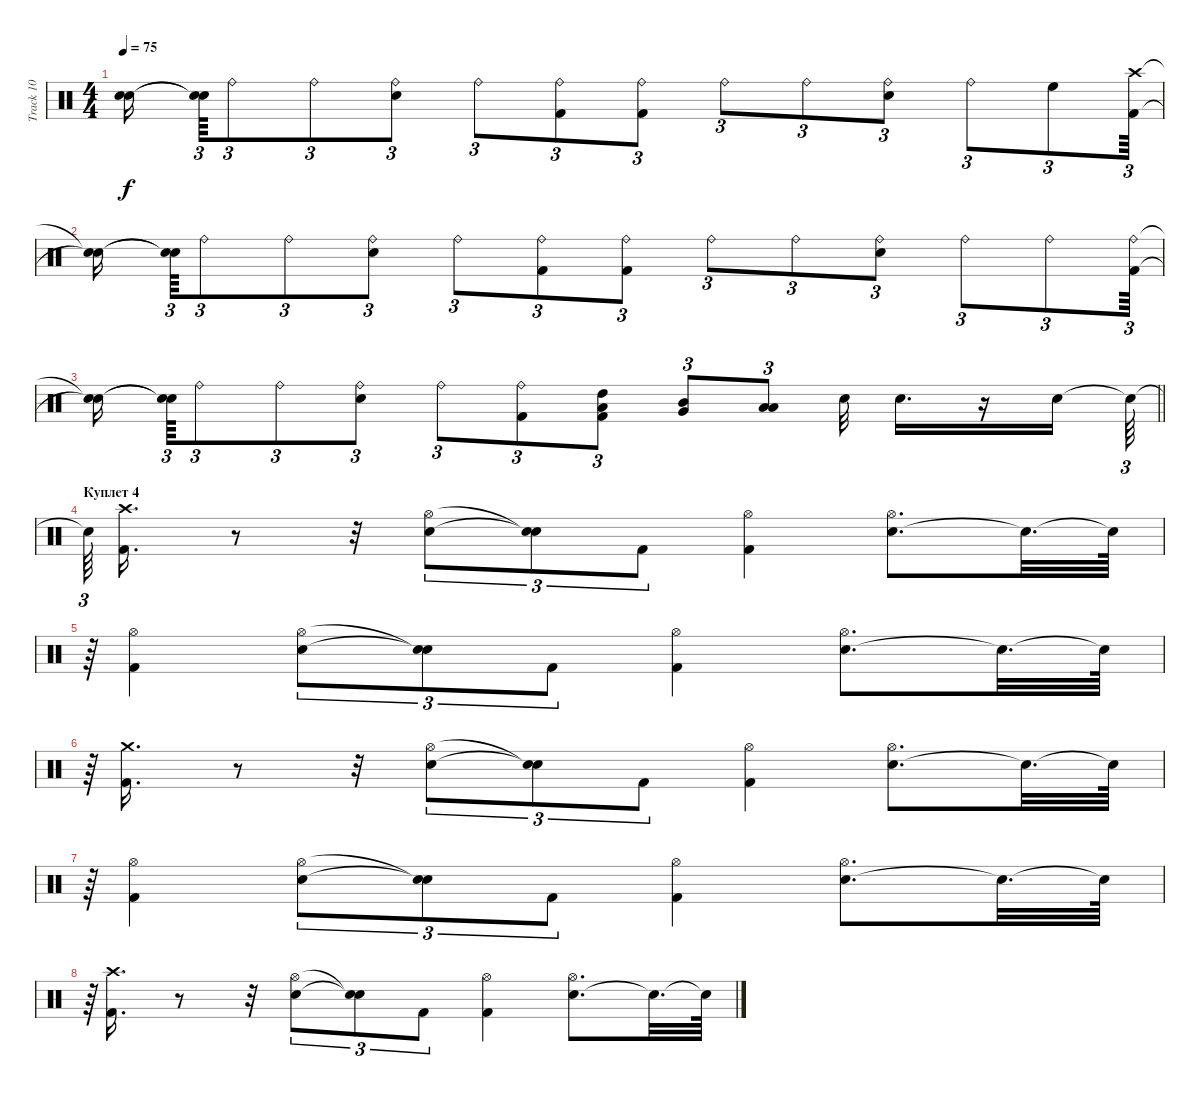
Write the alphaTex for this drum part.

\track ("Track 10" "Track 10") {instrument percussion}
\staff {score}
\articulation defaults
\ts (4 4)
\tempo 75
\clef neutral
\ks c
("Snare (hit)"{t} "Snare (hit)"{t}).16{dy f beam splitsecondary} ("Snare (hit)"{t} "Snare (hit)"{t}).64{tu (3 2)} "Ride (bell)".8{tu (3 2)} "Ride (bell)".8{tu (3 2)} ("Ride (bell)" "Snare (hit) 2").8{tu (3 2)} "Ride (bell)".8{tu (3 2)} ("Ride (bell)" "Kick (hit) 2").8{tu (3 2)} ("Ride (bell)" "Kick (hit) 2").8{tu (3 2)} "Ride (bell)".8{tu (3 2)} "Ride (bell)".8{tu (3 2)} ("Ride (bell)" "Snare (hit) 2").8{tu (3 2)} "Ride (bell)".8{tu (3 2)} "High Floor Tom (hit)".8{tu (3 2)} ("Crash high (hit)" "Kick (hit) 2").64{tu (3 2)} |
("Snare (hit)"{t} "Snare (hit)"{t}).16{beam splitsecondary} ("Snare (hit)"{t} "Snare (hit)"{t}).64{tu (3 2)} "Ride (bell)".8{tu (3 2)} "Ride (bell)".8{tu (3 2)} ("Ride (bell)" "Snare (hit) 2").8{tu (3 2)} "Ride (bell)".8{tu (3 2)} ("Ride (bell)" "Kick (hit) 2").8{tu (3 2)} ("Ride (bell)" "Kick (hit) 2").8{tu (3 2)} "Ride (bell)".8{tu (3 2)} "Ride (bell)".8{tu (3 2)} ("Ride (bell)" "Snare (hit) 2").8{tu (3 2)} "Ride (bell)".8{tu (3 2)} "Ride (bell)".8{tu (3 2)} ("Ride (bell)" "Kick (hit) 2").64{tu (3 2)} |
\barLineRight lightlight
("Snare (hit)"{t} "Snare (hit)"{t}).16{beam splitsecondary} ("Snare (hit)"{t} "Snare (hit)"{t}).64{tu (3 2)} "Ride (bell)".8{tu (3 2)} "Ride (bell)".8{tu (3 2)} ("Ride (bell)" "Snare (hit) 2").8{tu (3 2)} "Ride (bell)".8{tu (3 2)} ("Ride (bell)" "Kick (hit) 2").8{tu (3 2)} ("Kick (hit) 2" "High Tom (hit)" "Low Tom (hit)").8{tu (3 2)} ("Mid Tom (hit)" "Very Low Tom (hit)").8{tu (3 2)} ("Low Tom (hit)" "Low Floor Tom (hit)").8{tu (3 2)} "Snare (hit) 2".32 "Snare (hit) 2".16{d} r.16 "Snare (hit) 2".16 "Snare (hit)"{t}.64{tu (3 2)} |
\section ("" "Куплет 4")
"Snare (hit)"{t}.64{tu (3 2)} ("Kick (hit) 2" "Crash high (hit)").16{d} r.8 r.32 ("Snare (hit) 2" "Hi-Hat (open)").8{tu (3 2)} ("Snare (hit)"{t} "Snare (hit)"{t}).8{tu (3 2)} "Kick (hit) 2".8{tu (3 2)} ("Kick (hit) 2" "Hi-Hat (open)").4 ("Snare (hit) 2" "Hi-Hat (open)").8{d} "Snare (hit)"{t}.32{d} "Snare (hit)"{t}.64 |
r.64{tu (3 2)} ("Kick (hit) 2" "Hi-Hat (open)").4 ("Snare (hit) 2" "Hi-Hat (open)").8{tu (3 2)} ("Snare (hit)"{t} "Snare (hit)"{t}).8{tu (3 2)} "Kick (hit) 2".8{tu (3 2)} ("Kick (hit) 2" "Hi-Hat (open)").4 ("Snare (hit) 2" "Hi-Hat (open)").8{d} "Snare (hit)"{t}.32{d} "Snare (hit)"{t}.64 |
r.64{tu (3 2)} ("Crash medium (hit)" "Kick (hit) 2").16{d} r.8 r.32 ("Snare (hit) 2" "Hi-Hat (open)").8{tu (3 2)} ("Snare (hit)"{t} "Snare (hit)"{t}).8{tu (3 2)} "Kick (hit) 2".8{tu (3 2)} ("Kick (hit) 2" "Hi-Hat (open)").4 ("Snare (hit) 2" "Hi-Hat (open)").8{d} "Snare (hit)"{t}.32{d} "Snare (hit)"{t}.64 |
r.64{tu (3 2)} ("Kick (hit) 2" "Hi-Hat (open)").4 ("Snare (hit) 2" "Hi-Hat (open)").8{tu (3 2)} ("Snare (hit)"{t} "Snare (hit)"{t}).8{tu (3 2)} "Kick (hit) 2".8{tu (3 2)} ("Kick (hit) 2" "Hi-Hat (open)").4 ("Snare (hit) 2" "Hi-Hat (open)").8{d} "Snare (hit)"{t}.32{d} "Snare (hit)"{t}.64 |
r.64{tu (3 2)} ("Kick (hit) 2" "Crash high (hit)").16{d} r.8 r.32 ("Snare (hit) 2" "Hi-Hat (open)").8{tu (3 2)} ("Snare (hit)"{t} "Snare (hit)"{t}).8{tu (3 2)} "Kick (hit) 2".8{tu (3 2)} ("Kick (hit) 2" "Hi-Hat (open)").4 ("Snare (hit) 2" "Hi-Hat (open)").8{d} "Snare (hit)"{t}.32{d} "Snare (hit)"{t}.64
